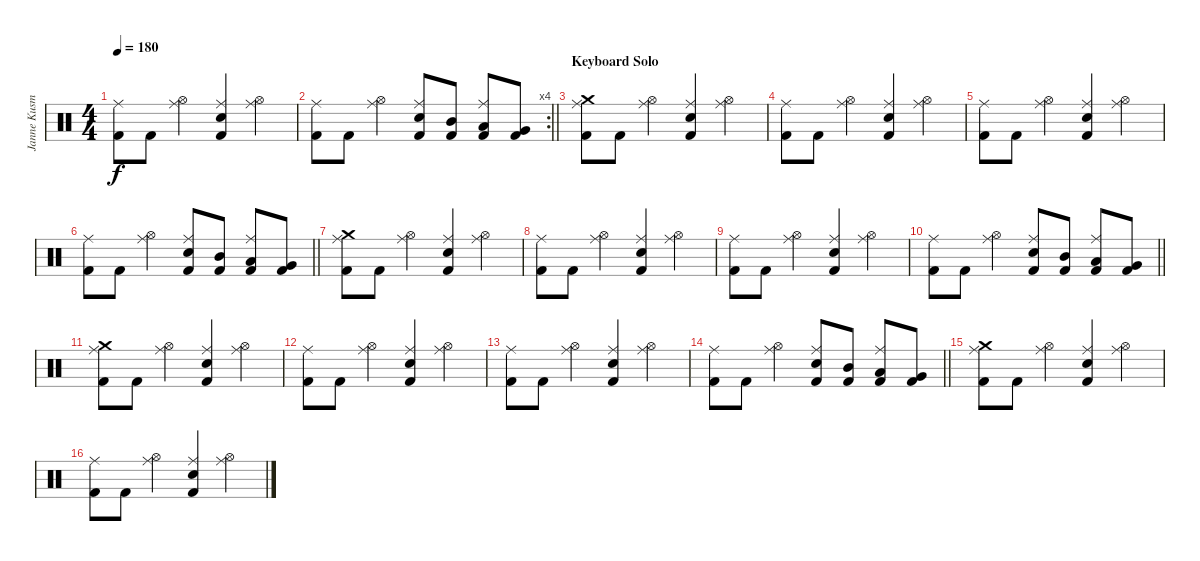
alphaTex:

\track ("Janne Kusmin" "Janne Kusm") {instrument percussion}
\staff {score}
\articulation defaults
\ts (4 4)
\tempo 180
\clef neutral
\ks c
("Kick (hit) 2" "Ride (middle)").8{dy f} "Kick (hit) 2".8 ("Hi-Hat (open)" "Ride (middle)").4 ("Kick (hit) 2" "Electric Snare (hit)" "Ride (middle)").4 ("Hi-Hat (open)" "Ride (middle)").4 |
\rc 4
\barLineRight lightlight
("Kick (hit) 2" "Ride (middle)").8 "Kick (hit) 2".8 ("Hi-Hat (open)" "Ride (middle)").4 ("Electric Snare (hit)" "Kick (hit) 2" "Ride (middle)").8 ("Mid Tom (hit)" "Kick (hit) 2").8 ("Low Tom (hit)" "Kick (hit) 2" "Ride (middle)").8 ("Very Low Tom (hit)" "Kick (hit) 2").8 |
\section ("" "Keyboard Solo")
("Kick (hit) 2" "Crash medium (hit)" "Ride (middle)").8 "Kick (hit) 2".8 ("Hi-Hat (open)" "Ride (middle)").4 ("Kick (hit) 2" "Electric Snare (hit)" "Ride (middle)").4 ("Hi-Hat (open)" "Ride (middle)").4 |
("Kick (hit) 2" "Ride (middle)").8 "Kick (hit) 2".8 ("Hi-Hat (open)" "Ride (middle)").4 ("Kick (hit) 2" "Electric Snare (hit)" "Ride (middle)").4 ("Hi-Hat (open)" "Ride (middle)").4 |
("Kick (hit) 2" "Ride (middle)").8 "Kick (hit) 2".8 ("Hi-Hat (open)" "Ride (middle)").4 ("Kick (hit) 2" "Electric Snare (hit)" "Ride (middle)").4 ("Hi-Hat (open)" "Ride (middle)").4 |
\barLineRight lightlight
("Kick (hit) 2" "Ride (middle)").8 "Kick (hit) 2".8 ("Hi-Hat (open)" "Ride (middle)").4 ("Electric Snare (hit)" "Kick (hit) 2" "Ride (middle)").8 ("Mid Tom (hit)" "Kick (hit) 2").8 ("Low Tom (hit)" "Kick (hit) 2" "Ride (middle)").8 ("Very Low Tom (hit)" "Kick (hit) 2").8 |
("Kick (hit) 2" "Crash medium (hit)" "Ride (middle)").8 "Kick (hit) 2".8 ("Hi-Hat (open)" "Ride (middle)").4 ("Kick (hit) 2" "Electric Snare (hit)" "Ride (middle)").4 ("Hi-Hat (open)" "Ride (middle)").4 |
("Kick (hit) 2" "Ride (middle)").8 "Kick (hit) 2".8 ("Hi-Hat (open)" "Ride (middle)").4 ("Kick (hit) 2" "Electric Snare (hit)" "Ride (middle)").4 ("Hi-Hat (open)" "Ride (middle)").4 |
("Kick (hit) 2" "Ride (middle)").8 "Kick (hit) 2".8 ("Hi-Hat (open)" "Ride (middle)").4 ("Kick (hit) 2" "Electric Snare (hit)" "Ride (middle)").4 ("Hi-Hat (open)" "Ride (middle)").4 |
\barLineRight lightlight
("Kick (hit) 2" "Ride (middle)").8 "Kick (hit) 2".8 ("Hi-Hat (open)" "Ride (middle)").4 ("Electric Snare (hit)" "Kick (hit) 2" "Ride (middle)").8 ("Mid Tom (hit)" "Kick (hit) 2").8 ("Low Tom (hit)" "Kick (hit) 2" "Ride (middle)").8 ("Very Low Tom (hit)" "Kick (hit) 2").8 |
("Kick (hit) 2" "Crash medium (hit)" "Ride (middle)").8 "Kick (hit) 2".8 ("Hi-Hat (open)" "Ride (middle)").4 ("Kick (hit) 2" "Electric Snare (hit)" "Ride (middle)").4 ("Hi-Hat (open)" "Ride (middle)").4 |
("Kick (hit) 2" "Ride (middle)").8 "Kick (hit) 2".8 ("Hi-Hat (open)" "Ride (middle)").4 ("Kick (hit) 2" "Electric Snare (hit)" "Ride (middle)").4 ("Hi-Hat (open)" "Ride (middle)").4 |
("Kick (hit) 2" "Ride (middle)").8 "Kick (hit) 2".8 ("Hi-Hat (open)" "Ride (middle)").4 ("Kick (hit) 2" "Electric Snare (hit)" "Ride (middle)").4 ("Hi-Hat (open)" "Ride (middle)").4 |
\barLineRight lightlight
("Kick (hit) 2" "Ride (middle)").8 "Kick (hit) 2".8 ("Hi-Hat (open)" "Ride (middle)").4 ("Electric Snare (hit)" "Kick (hit) 2" "Ride (middle)").8 ("Mid Tom (hit)" "Kick (hit) 2").8 ("Low Tom (hit)" "Kick (hit) 2" "Ride (middle)").8 ("Very Low Tom (hit)" "Kick (hit) 2").8 |
("Kick (hit) 2" "Crash medium (hit)" "Ride (middle)").8 "Kick (hit) 2".8 ("Hi-Hat (open)" "Ride (middle)").4 ("Kick (hit) 2" "Electric Snare (hit)" "Ride (middle)").4 ("Hi-Hat (open)" "Ride (middle)").4 |
("Kick (hit) 2" "Ride (middle)").8 "Kick (hit) 2".8 ("Hi-Hat (open)" "Ride (middle)").4 ("Kick (hit) 2" "Electric Snare (hit)" "Ride (middle)").4 ("Hi-Hat (open)" "Ride (middle)").4
